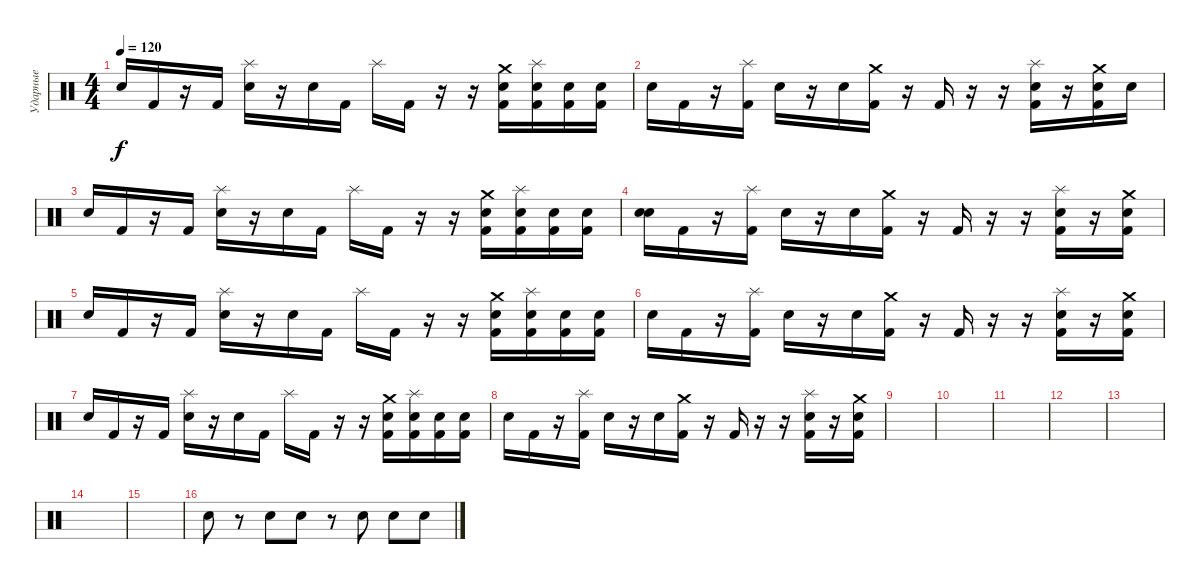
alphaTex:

\track ("Ударные" "Ударные") {instrument percussion}
\staff {score}
\articulation defaults
\ts (4 4)
\tempo 120
\clef neutral
\ks c "Electric Snare (hit)".16{dy f} "Kick (hit) 2".16
r.16 "Kick (hit) 2".16 ("Splash (hit)" "Electric Snare (hit)").16 r.16 "Electric Snare (hit)".16 "Kick (hit) 2".16 "Splash (hit)".16 "Kick (hit) 2".16 r.16 r.16 ("Crash medium (hit)" "Electric Snare (hit)" "Kick (hit) 2").16 ("Splash (hit)" "Electric Snare (hit)" "Kick (hit) 2").16 ("Electric Snare (hit)" "Kick (hit) 2").16 ("Electric Snare (hit)" "Kick (hit) 2").16 |
"Electric Snare (hit)".16 "Kick (hit) 2".16 r.16 ("Splash (hit)" "Kick (hit) 2").16 "Electric Snare (hit)".16 r.16 "Electric Snare (hit)".16 ("Crash medium (hit)" "Kick (hit) 2").16 r.16 "Kick (hit) 2".16 r.16 r.16 ("Splash (hit)" "Electric Snare (hit)" "Kick (hit) 2").16 r.16 ("Crash medium (hit)" "Electric Snare (hit)" "Kick (hit) 2").16 "Snare (hit)".16 |
"Electric Snare (hit)".16 "Kick (hit) 2".16 r.16 "Kick (hit) 2".16 ("Splash (hit)" "Electric Snare (hit)").16 r.16 "Electric Snare (hit)".16 "Kick (hit) 2".16 "Splash (hit)".16 "Kick (hit) 2".16 r.16 r.16 ("Crash medium (hit)" "Electric Snare (hit)" "Kick (hit) 2").16 ("Splash (hit)" "Electric Snare (hit)" "Kick (hit) 2").16 ("Electric Snare (hit)" "Kick (hit) 2").16 ("Electric Snare (hit)" "Kick (hit) 2").16 |
("Snare (hit)" "Electric Snare (hit)").16 "Kick (hit) 2".16 r.16 ("Splash (hit)" "Kick (hit) 2").16 "Electric Snare (hit)".16 r.16 "Electric Snare (hit)".16 ("Crash medium (hit)" "Kick (hit) 2").16 r.16 "Kick (hit) 2".16 r.16 r.16 ("Splash (hit)" "Electric Snare (hit)" "Kick (hit) 2").16 r.16 ("Crash medium (hit)" "Electric Snare (hit)" "Kick (hit) 2").16 |
"Electric Snare (hit)".16 "Kick (hit) 2".16 r.16 "Kick (hit) 2".16 ("Splash (hit)" "Electric Snare (hit)").16 r.16 "Electric Snare (hit)".16 "Kick (hit) 2".16 "Splash (hit)".16 "Kick (hit) 2".16 r.16 r.16 ("Crash medium (hit)" "Electric Snare (hit)" "Kick (hit) 2").16 ("Splash (hit)" "Electric Snare (hit)" "Kick (hit) 2").16 ("Electric Snare (hit)" "Kick (hit) 2").16 ("Electric Snare (hit)" "Kick (hit) 2").16 |
"Electric Snare (hit)".16 "Kick (hit) 2".16 r.16 ("Splash (hit)" "Kick (hit) 2").16 "Electric Snare (hit)".16 r.16 "Electric Snare (hit)".16 ("Crash medium (hit)" "Kick (hit) 2").16 r.16 "Kick (hit) 2".16 r.16 r.16 ("Splash (hit)" "Electric Snare (hit)" "Kick (hit) 2").16 r.16 ("Crash medium (hit)" "Electric Snare (hit)" "Kick (hit) 2").16 |
"Electric Snare (hit)".16 "Kick (hit) 2".16 r.16 "Kick (hit) 2".16 ("Splash (hit)" "Electric Snare (hit)").16 r.16 "Electric Snare (hit)".16 "Kick (hit) 2".16 "Splash (hit)".16 "Kick (hit) 2".16 r.16 r.16 ("Crash medium (hit)" "Electric Snare (hit)" "Kick (hit) 2").16 ("Splash (hit)" "Electric Snare (hit)" "Kick (hit) 2").16 ("Electric Snare (hit)" "Kick (hit) 2").16 ("Electric Snare (hit)" "Kick (hit) 2").16 |
"Electric Snare (hit)".16 "Kick (hit) 2".16 r.16 ("Splash (hit)" "Kick (hit) 2").16 "Electric Snare (hit)".16 r.16 "Electric Snare (hit)".16 ("Crash medium (hit)" "Kick (hit) 2").16 r.16 "Kick (hit) 2".16 r.16 r.16 ("Splash (hit)" "Electric Snare (hit)" "Kick (hit) 2").16 r.16 ("Crash medium (hit)" "Electric Snare (hit)" "Kick (hit) 2").16 |
|
|
|
|
|
|
|
"Electric Snare (hit)".8 r.8 "Electric Snare (hit)".8 "Electric Snare (hit)".8 r.8 "Electric Snare (hit)".8 "Electric Snare (hit)".8 "Electric Snare (hit)".8
